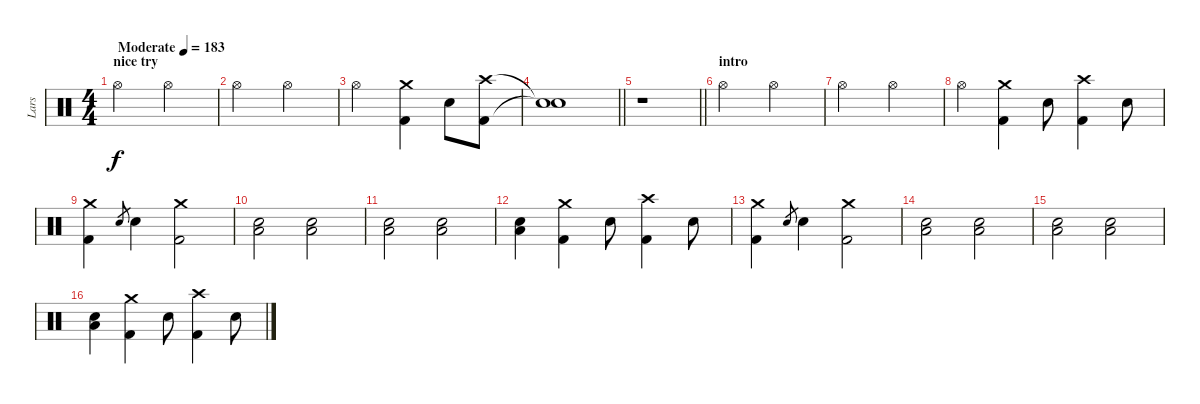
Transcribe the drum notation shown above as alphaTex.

\track ("Lars" "Lars") {instrument percussion}
\staff {score}
\articulation defaults
\ts (4 4)
\section ("" "nice try")
\tempo (183 "Moderate")
\clef neutral
\ks c "Hi-Hat (open)".2{dy f} "Hi-Hat (open)".2
|
"Hi-Hat (open)".2 "Hi-Hat (open)".2 |
"Hi-Hat (open)".2 ("Crash medium (hit)" "Kick (hit) 2").4 "Snare (hit) 2".8 ("Crash high (hit)" "Kick (hit) 2").8 |
\barLineRight lightlight
("Snare (hit)"{t} "Snare (hit)"{t}).1 |
\barLineRight lightlight
r.1 |
\section ("" "intro")
"Hi-Hat (open)".2 "Hi-Hat (open)".2 |
"Hi-Hat (open)".2 "Hi-Hat (open)".2 |
"Hi-Hat (open)".4 ("Crash medium (hit)" "Kick (hit) 2").4 "Snare (hit) 2".8 ("Crash high (hit)" "Kick (hit) 2").4 "Snare (hit) 2".8 |
("Crash medium (hit)" "Kick (hit) 2").4 "Snare (hit) 2".8{gr} "Snare (hit) 2".4 ("Crash medium (hit)" "Kick (hit) 2").2 |
("Snare (hit) 2" "Low Floor Tom (hit)").2 ("Snare (hit) 2" "Low Floor Tom (hit)").2 |
("Snare (hit) 2" "Low Floor Tom (hit)").2 ("Snare (hit) 2" "Low Floor Tom (hit)").2 |
("Snare (hit) 2" "Low Floor Tom (hit)").4 ("Crash medium (hit)" "Kick (hit) 2").4 "Snare (hit) 2".8 ("Crash high (hit)" "Kick (hit) 2").4 "Snare (hit) 2".8 |
("Crash medium (hit)" "Kick (hit) 2").4 "Snare (hit) 2".8{gr} "Snare (hit) 2".4 ("Crash medium (hit)" "Kick (hit) 2").2 |
("Snare (hit) 2" "Low Floor Tom (hit)").2 ("Snare (hit) 2" "Low Floor Tom (hit)").2 |
("Snare (hit) 2" "Low Floor Tom (hit)").2 ("Snare (hit) 2" "Low Floor Tom (hit)").2 |
("Snare (hit) 2" "Low Floor Tom (hit)").4 ("Crash medium (hit)" "Kick (hit) 2").4 "Snare (hit) 2".8 ("Crash high (hit)" "Kick (hit) 2").4 "Snare (hit) 2".8
